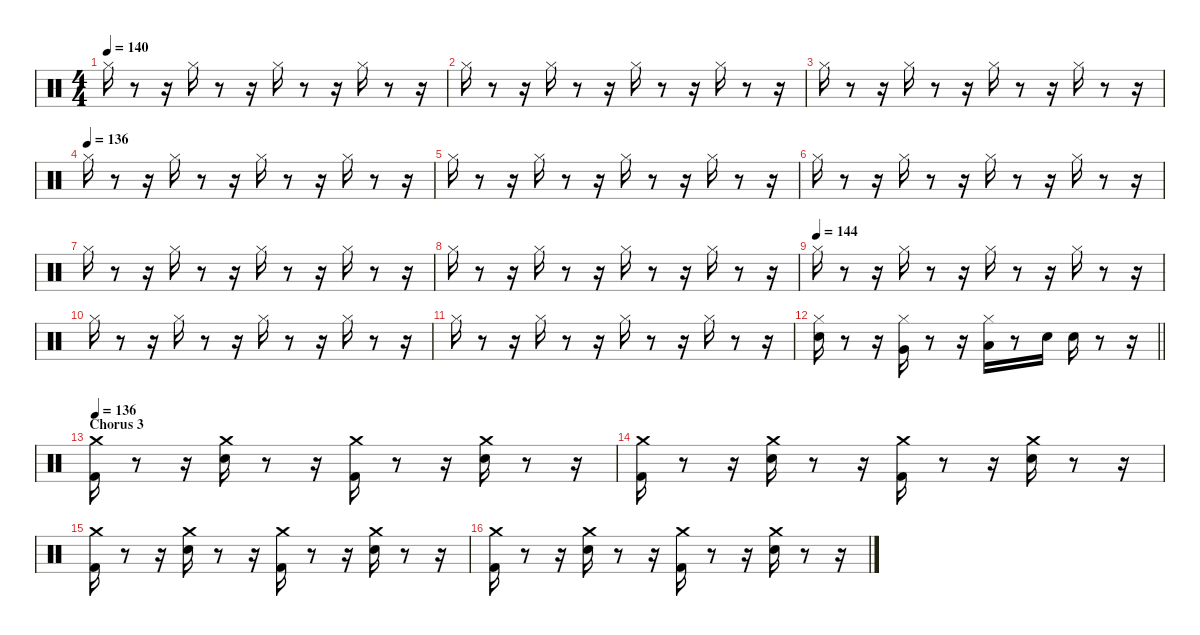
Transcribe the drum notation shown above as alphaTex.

\defaultSystemsLayout 4
\hideDynamics
\bracketExtendMode nobrackets
\singleTrackTrackNamePolicy hidden
\multiTrackTrackNamePolicy hidden
\firstSystemTrackNameMode fullname
\firstSystemTrackNameOrientation horizontal
\otherSystemsTrackNameOrientation horizontal
\track ("John Bonham" "drm.") {instrument percussion}
\staff {score}
\articulation defaults
\ts (4 4)
\tempo 140
\clef neutral
\ks aminor "Hi-Hat (closed)".16{dy f beam Down}
r.8{beam Down} r.16{beam Down} "Hi-Hat (closed)".16{beam Down} r.8{beam Down} r.16{beam Down} "Hi-Hat (closed)".16{beam Down} r.8{beam Down} r.16{beam Down} "Hi-Hat (closed)".16{beam Down} r.8{beam Down} r.16{beam Down} |
"Hi-Hat (closed)".16{beam Down} r.8{beam Down} r.16{beam Down} "Hi-Hat (closed)".16{beam Down} r.8{beam Down} r.16{beam Down} "Hi-Hat (closed)".16{beam Down} r.8{beam Down} r.16{beam Down} "Hi-Hat (closed)".16{beam Down} r.8{beam Down} r.16{beam Down} |
"Hi-Hat (closed)".16{beam Down} r.8{beam Down} r.16{beam Down} "Hi-Hat (closed)".16{beam Down} r.8{beam Down} r.16{beam Down} "Hi-Hat (closed)".16{beam Down} r.8{beam Down} r.16{beam Down} "Hi-Hat (closed)".16{beam Down} r.8{beam Down} r.16{beam Down} |
\tempo (136)
"Hi-Hat (closed)".16{beam Down} r.8{beam Down} r.16{beam Down} "Hi-Hat (closed)".16{beam Down} r.8{beam Down} r.16{beam Down} "Hi-Hat (closed)".16{beam Down} r.8{beam Down} r.16{beam Down} "Hi-Hat (closed)".16{beam Down} r.8{beam Down} r.16{beam Down} |
"Hi-Hat (closed)".16{beam Down} r.8{beam Down} r.16{beam Down} "Hi-Hat (closed)".16{beam Down} r.8{beam Down} r.16{beam Down} "Hi-Hat (closed)".16{beam Down} r.8{beam Down} r.16{beam Down} "Hi-Hat (closed)".16{beam Down} r.8{beam Down} r.16{beam Down} |
"Hi-Hat (closed)".16{beam Down} r.8{beam Down} r.16{beam Down} "Hi-Hat (closed)".16{beam Down} r.8{beam Down} r.16{beam Down} "Hi-Hat (closed)".16{beam Down} r.8{beam Down} r.16{beam Down} "Hi-Hat (closed)".16{beam Down} r.8{beam Down} r.16{beam Down} |
"Hi-Hat (closed)".16{beam Down} r.8{beam Down} r.16{beam Down} "Hi-Hat (closed)".16{beam Down} r.8{beam Down} r.16{beam Down} "Hi-Hat (closed)".16{beam Down} r.8{beam Down} r.16{beam Down} "Hi-Hat (closed)".16{beam Down} r.8{beam Down} r.16{beam Down} |
"Hi-Hat (closed)".16{beam Down} r.8{beam Down} r.16{beam Down} "Hi-Hat (closed)".16{beam Down} r.8{beam Down} r.16{beam Down} "Hi-Hat (closed)".16{beam Down} r.8{beam Down} r.16{beam Down} "Hi-Hat (closed)".16{beam Down} r.8{beam Down} r.16{beam Down} |
\tempo (144)
"Hi-Hat (closed)".16{beam Down} r.8{beam Down} r.16{beam Down} "Hi-Hat (closed)".16{beam Down} r.8{beam Down} r.16{beam Down} "Hi-Hat (closed)".16{beam Down} r.8{beam Down} r.16{beam Down} "Hi-Hat (closed)".16{beam Down} r.8{beam Down} r.16{beam Down} |
"Hi-Hat (closed)".16{beam Down} r.8{beam Down} r.16{beam Down} "Hi-Hat (closed)".16{beam Down} r.8{beam Down} r.16{beam Down} "Hi-Hat (closed)".16{beam Down} r.8{beam Down} r.16{beam Down} "Hi-Hat (closed)".16{beam Down} r.8{beam Down} r.16{beam Down} |
"Hi-Hat (closed)".16{beam Down} r.8{beam Down} r.16{beam Down} "Hi-Hat (closed)".16{beam Down} r.8{beam Down} r.16{beam Down} "Hi-Hat (closed)".16{beam Down} r.8{beam Down} r.16{beam Down} "Hi-Hat (closed)".16{beam Down} r.8{beam Down} r.16{beam Down} |
\barLineRight lightlight
("Hi-Hat (closed)" "Snare (hit) 2").16{beam Down} r.8{beam Down} r.16{beam Down} ("Hi-Hat (closed)" "Very Low Tom (hit)").16{beam Down} r.8{beam Down} r.16{beam Down} ("Hi-Hat (closed)" "Low Tom (hit)").16{beam Down} r.8{beam Down} "Snare (hit) 2".16{beam Down} "Snare (hit) 2".16{beam Down} r.8{beam Down} r.16{beam Down} |
\section ("" "Chorus 3")
\tempo 136
("Kick (hit) 2" "Crash medium (hit)").16{beam Down} r.8{beam Down} r.16{beam Down} ("Snare (hit) 2" "Crash medium (hit)").16{beam Down} r.8{beam Down} r.16{beam Down} ("Kick (hit) 2" "Crash medium (hit)").16{beam Down} r.8{beam Down} r.16{beam Down} ("Snare (hit) 2" "Crash medium (hit)").16{beam Down} r.8{beam Down} r.16{beam Down} |
("Kick (hit) 2" "Crash medium (hit)").16{beam Down} r.8{beam Down} r.16{beam Down} ("Snare (hit) 2" "Crash medium (hit)").16{beam Down} r.8{beam Down} r.16{beam Down} ("Kick (hit) 2" "Crash medium (hit)").16{beam Down} r.8{beam Down} r.16{beam Down} ("Snare (hit) 2" "Crash medium (hit)").16{beam Down} r.8{beam Down} r.16{beam Down} |
("Kick (hit) 2" "Crash medium (hit)").16{beam Down} r.8{beam Down} r.16{beam Down} ("Snare (hit) 2" "Crash medium (hit)").16{beam Down} r.8{beam Down} r.16{beam Down} ("Kick (hit) 2" "Crash medium (hit)").16{beam Down} r.8{beam Down} r.16{beam Down} ("Snare (hit) 2" "Crash medium (hit)").16{beam Down} r.8{beam Down} r.16{beam Down} |
("Kick (hit) 2" "Crash medium (hit)").16{beam Down} r.8{beam Down} r.16{beam Down} ("Snare (hit) 2" "Crash medium (hit)").16{beam Down} r.8{beam Down} r.16{beam Down} ("Kick (hit) 2" "Crash medium (hit)").16{beam Down} r.8{beam Down} r.16{beam Down} ("Snare (hit) 2" "Crash medium (hit)").16{beam Down} r.8{beam Down} r.16{beam Down}
